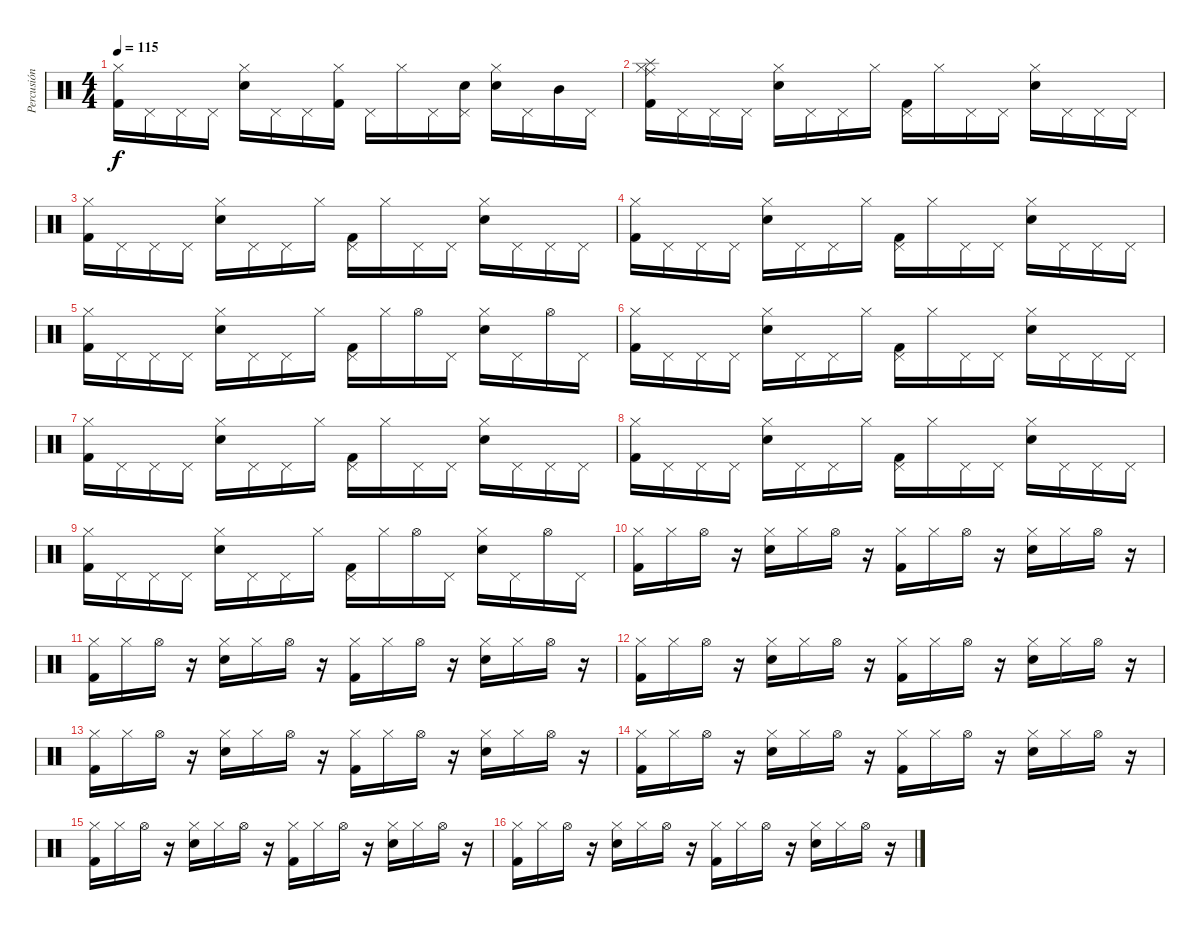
\track ("Percusión" "Percusión") {instrument percussion}
\staff {score}
\articulation defaults
\ts (4 4)
\tempo 115
\clef neutral
\ks c
("Hi-Hat (closed)" "Kick (hit) 2").16{dy f} "Pedal Hi-Hat (hit)".16 "Pedal Hi-Hat (hit)".16 "Pedal Hi-Hat (hit)".16 ("Hi-Hat (closed)" "Snare (hit) 2").16 "Pedal Hi-Hat (hit)".16 "Pedal Hi-Hat (hit)".16 ("Hi-Hat (closed)" "Kick (hit) 2").16 "Pedal Hi-Hat (hit)".16 "Hi-Hat (closed)".16 "Pedal Hi-Hat (hit)".16 ("Pedal Hi-Hat (hit)" "Snare (hit) 2").16 ("Hi-Hat (closed)" "Snare (hit) 2").16 "Pedal Hi-Hat (hit)".16 "Mid Tom (hit)".16 "Pedal Hi-Hat (hit)".16 |
("Hi-Hat (closed)" "Kick (hit) 2" "Splash (hit)" "Ride (middle)").16 "Pedal Hi-Hat (hit)".16 "Pedal Hi-Hat (hit)".16 "Pedal Hi-Hat (hit)".16 ("Hi-Hat (closed)" "Snare (hit) 2").16 "Pedal Hi-Hat (hit)".16 "Pedal Hi-Hat (hit)".16 "Hi-Hat (closed)".16 ("Pedal Hi-Hat (hit)" "Kick (hit) 2").16 "Hi-Hat (closed)".16 "Pedal Hi-Hat (hit)".16 "Pedal Hi-Hat (hit)".16 ("Hi-Hat (closed)" "Snare (hit) 2").16 "Pedal Hi-Hat (hit)".16 "Pedal Hi-Hat (hit)".16 "Pedal Hi-Hat (hit)".16 |
("Hi-Hat (closed)" "Kick (hit) 2").16 "Pedal Hi-Hat (hit)".16 "Pedal Hi-Hat (hit)".16 "Pedal Hi-Hat (hit)".16 ("Hi-Hat (closed)" "Snare (hit) 2").16 "Pedal Hi-Hat (hit)".16 "Pedal Hi-Hat (hit)".16 "Hi-Hat (closed)".16 ("Pedal Hi-Hat (hit)" "Kick (hit) 2").16 "Hi-Hat (closed)".16 "Pedal Hi-Hat (hit)".16 "Pedal Hi-Hat (hit)".16 ("Hi-Hat (closed)" "Snare (hit) 2").16 "Pedal Hi-Hat (hit)".16 "Pedal Hi-Hat (hit)".16 "Pedal Hi-Hat (hit)".16 |
("Hi-Hat (closed)" "Kick (hit) 2").16 "Pedal Hi-Hat (hit)".16 "Pedal Hi-Hat (hit)".16 "Pedal Hi-Hat (hit)".16 ("Hi-Hat (closed)" "Snare (hit) 2").16 "Pedal Hi-Hat (hit)".16 "Pedal Hi-Hat (hit)".16 "Hi-Hat (closed)".16 ("Pedal Hi-Hat (hit)" "Kick (hit) 2").16 "Hi-Hat (closed)".16 "Pedal Hi-Hat (hit)".16 "Pedal Hi-Hat (hit)".16 ("Hi-Hat (closed)" "Snare (hit) 2").16 "Pedal Hi-Hat (hit)".16 "Pedal Hi-Hat (hit)".16 "Pedal Hi-Hat (hit)".16 |
("Hi-Hat (closed)" "Kick (hit) 2").16 "Pedal Hi-Hat (hit)".16 "Pedal Hi-Hat (hit)".16 "Pedal Hi-Hat (hit)".16 ("Hi-Hat (closed)" "Snare (hit) 2").16 "Pedal Hi-Hat (hit)".16 "Pedal Hi-Hat (hit)".16 "Hi-Hat (closed)".16 ("Pedal Hi-Hat (hit)" "Kick (hit) 2").16 "Hi-Hat (closed)".16 "Hi-Hat (open)".16 "Pedal Hi-Hat (hit)".16 ("Hi-Hat (closed)" "Snare (hit) 2").16 "Pedal Hi-Hat (hit)".16 "Hi-Hat (open)".16 "Pedal Hi-Hat (hit)".16 |
("Hi-Hat (closed)" "Kick (hit) 2").16 "Pedal Hi-Hat (hit)".16 "Pedal Hi-Hat (hit)".16 "Pedal Hi-Hat (hit)".16 ("Hi-Hat (closed)" "Snare (hit) 2").16 "Pedal Hi-Hat (hit)".16 "Pedal Hi-Hat (hit)".16 "Hi-Hat (closed)".16 ("Pedal Hi-Hat (hit)" "Kick (hit) 2").16 "Hi-Hat (closed)".16 "Pedal Hi-Hat (hit)".16 "Pedal Hi-Hat (hit)".16 ("Hi-Hat (closed)" "Snare (hit) 2").16 "Pedal Hi-Hat (hit)".16 "Pedal Hi-Hat (hit)".16 "Pedal Hi-Hat (hit)".16 |
("Hi-Hat (closed)" "Kick (hit) 2").16 "Pedal Hi-Hat (hit)".16 "Pedal Hi-Hat (hit)".16 "Pedal Hi-Hat (hit)".16 ("Hi-Hat (closed)" "Snare (hit) 2").16 "Pedal Hi-Hat (hit)".16 "Pedal Hi-Hat (hit)".16 "Hi-Hat (closed)".16 ("Pedal Hi-Hat (hit)" "Kick (hit) 2").16 "Hi-Hat (closed)".16 "Pedal Hi-Hat (hit)".16 "Pedal Hi-Hat (hit)".16 ("Hi-Hat (closed)" "Snare (hit) 2").16 "Pedal Hi-Hat (hit)".16 "Pedal Hi-Hat (hit)".16 "Pedal Hi-Hat (hit)".16 |
("Hi-Hat (closed)" "Kick (hit) 2").16 "Pedal Hi-Hat (hit)".16 "Pedal Hi-Hat (hit)".16 "Pedal Hi-Hat (hit)".16 ("Hi-Hat (closed)" "Snare (hit) 2").16 "Pedal Hi-Hat (hit)".16 "Pedal Hi-Hat (hit)".16 "Hi-Hat (closed)".16 ("Pedal Hi-Hat (hit)" "Kick (hit) 2").16 "Hi-Hat (closed)".16 "Pedal Hi-Hat (hit)".16 "Pedal Hi-Hat (hit)".16 ("Hi-Hat (closed)" "Snare (hit) 2").16 "Pedal Hi-Hat (hit)".16 "Pedal Hi-Hat (hit)".16 "Pedal Hi-Hat (hit)".16 |
("Hi-Hat (closed)" "Kick (hit) 2").16 "Pedal Hi-Hat (hit)".16 "Pedal Hi-Hat (hit)".16 "Pedal Hi-Hat (hit)".16 ("Hi-Hat (closed)" "Snare (hit) 2").16 "Pedal Hi-Hat (hit)".16 "Pedal Hi-Hat (hit)".16 "Hi-Hat (closed)".16 ("Pedal Hi-Hat (hit)" "Kick (hit) 2").16 "Hi-Hat (closed)".16 "Hi-Hat (open)".16 "Pedal Hi-Hat (hit)".16 ("Hi-Hat (closed)" "Snare (hit) 2").16 "Pedal Hi-Hat (hit)".16 "Hi-Hat (open)".16 "Pedal Hi-Hat (hit)".16 |
("Hi-Hat (closed)" "Kick (hit) 2").16 "Hi-Hat (closed)".16 "Hi-Hat (open)".16 r.16 ("Hi-Hat (closed)" "Snare (hit) 2").16 "Hi-Hat (closed)".16 "Hi-Hat (open)".16 r.16 ("Hi-Hat (closed)" "Kick (hit) 2").16 "Hi-Hat (closed)".16 "Hi-Hat (open)".16 r.16 ("Hi-Hat (closed)" "Snare (hit) 2").16 "Hi-Hat (closed)".16 "Hi-Hat (open)".16 r.16 |
("Hi-Hat (closed)" "Kick (hit) 2").16 "Hi-Hat (closed)".16 "Hi-Hat (open)".16 r.16 ("Hi-Hat (closed)" "Snare (hit) 2").16 "Hi-Hat (closed)".16 "Hi-Hat (open)".16 r.16 ("Hi-Hat (closed)" "Kick (hit) 2").16 "Hi-Hat (closed)".16 "Hi-Hat (open)".16 r.16 ("Hi-Hat (closed)" "Snare (hit) 2").16 "Hi-Hat (closed)".16 "Hi-Hat (open)".16 r.16 |
("Hi-Hat (closed)" "Kick (hit) 2").16 "Hi-Hat (closed)".16 "Hi-Hat (open)".16 r.16 ("Hi-Hat (closed)" "Snare (hit) 2").16 "Hi-Hat (closed)".16 "Hi-Hat (open)".16 r.16 ("Hi-Hat (closed)" "Kick (hit) 2").16 "Hi-Hat (closed)".16 "Hi-Hat (open)".16 r.16 ("Hi-Hat (closed)" "Snare (hit) 2").16 "Hi-Hat (closed)".16 "Hi-Hat (open)".16 r.16 |
("Hi-Hat (closed)" "Kick (hit) 2").16 "Hi-Hat (closed)".16 "Hi-Hat (open)".16 r.16 ("Hi-Hat (closed)" "Snare (hit) 2").16 "Hi-Hat (closed)".16 "Hi-Hat (open)".16 r.16 ("Hi-Hat (closed)" "Kick (hit) 2").16 "Hi-Hat (closed)".16 "Hi-Hat (open)".16 r.16 ("Hi-Hat (closed)" "Snare (hit) 2").16 "Hi-Hat (closed)".16 "Hi-Hat (open)".16 r.16 |
("Hi-Hat (closed)" "Kick (hit) 2").16 "Hi-Hat (closed)".16 "Hi-Hat (open)".16 r.16 ("Hi-Hat (closed)" "Snare (hit) 2").16 "Hi-Hat (closed)".16 "Hi-Hat (open)".16 r.16 ("Hi-Hat (closed)" "Kick (hit) 2").16 "Hi-Hat (closed)".16 "Hi-Hat (open)".16 r.16 ("Hi-Hat (closed)" "Snare (hit) 2").16 "Hi-Hat (closed)".16 "Hi-Hat (open)".16 r.16 |
("Hi-Hat (closed)" "Kick (hit) 2").16 "Hi-Hat (closed)".16 "Hi-Hat (open)".16 r.16 ("Hi-Hat (closed)" "Snare (hit) 2").16 "Hi-Hat (closed)".16 "Hi-Hat (open)".16 r.16 ("Hi-Hat (closed)" "Kick (hit) 2").16 "Hi-Hat (closed)".16 "Hi-Hat (open)".16 r.16 ("Hi-Hat (closed)" "Snare (hit) 2").16 "Hi-Hat (closed)".16 "Hi-Hat (open)".16 r.16 |
("Hi-Hat (closed)" "Kick (hit) 2").16 "Hi-Hat (closed)".16 "Hi-Hat (open)".16 r.16 ("Hi-Hat (closed)" "Snare (hit) 2").16 "Hi-Hat (closed)".16 "Hi-Hat (open)".16 r.16 ("Hi-Hat (closed)" "Kick (hit) 2").16 "Hi-Hat (closed)".16 "Hi-Hat (open)".16 r.16 ("Hi-Hat (closed)" "Snare (hit) 2").16 "Hi-Hat (closed)".16 "Hi-Hat (open)".16 r.16
